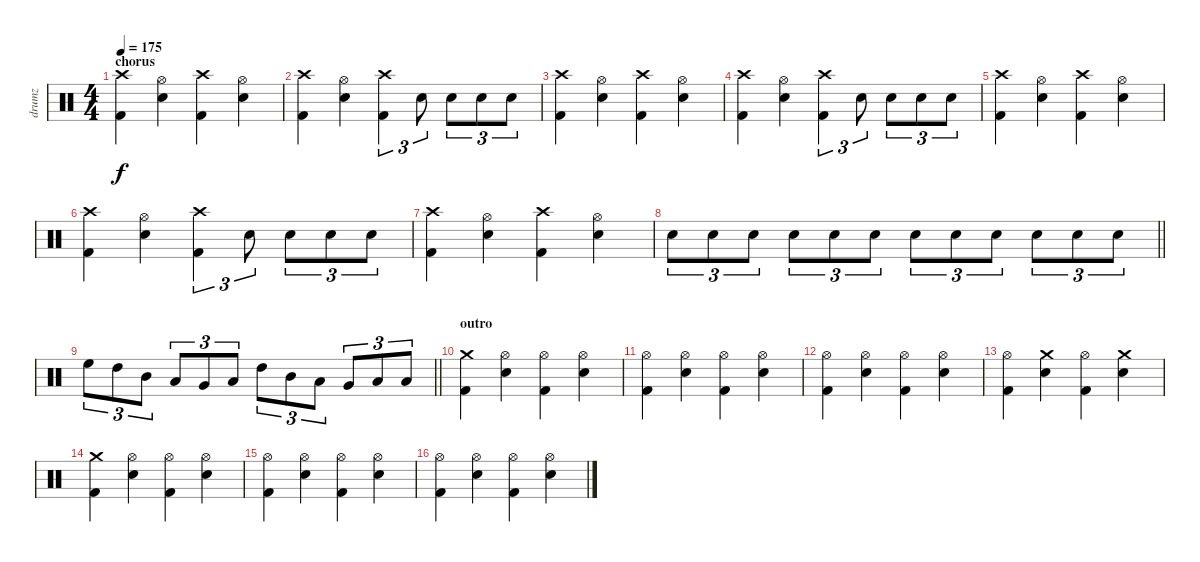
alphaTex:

\track ("drumz" "drumz") {instrument percussion}
\staff {score}
\articulation defaults
\ts (4 4)
\section ("" "chorus")
\tempo 175
\clef neutral
\ks c
("Crash high (hit)" "Kick (hit) 2").4{dy f} ("Hi-Hat (open)" "Electric Snare (hit)").4 ("Crash high (hit)" "Kick (hit) 2").4 ("Hi-Hat (open)" "Electric Snare (hit)").4 |
("Crash high (hit)" "Kick (hit) 2").4 ("Hi-Hat (open)" "Electric Snare (hit)").4 ("Crash high (hit)" "Kick (hit) 2").4{tu (3 2)} "Electric Snare (hit)".8{tu (3 2)} "Electric Snare (hit)".8{tu (3 2)} "Electric Snare (hit)".8{tu (3 2)} "Electric Snare (hit)".8{tu (3 2)} |
("Crash high (hit)" "Kick (hit) 2").4 ("Hi-Hat (open)" "Electric Snare (hit)").4 ("Crash high (hit)" "Kick (hit) 2").4 ("Hi-Hat (open)" "Electric Snare (hit)").4 |
("Crash high (hit)" "Kick (hit) 2").4 ("Hi-Hat (open)" "Electric Snare (hit)").4 ("Crash high (hit)" "Kick (hit) 2").4{tu (3 2)} "Electric Snare (hit)".8{tu (3 2)} "Electric Snare (hit)".8{tu (3 2)} "Electric Snare (hit)".8{tu (3 2)} "Electric Snare (hit)".8{tu (3 2)} |
("Crash high (hit)" "Kick (hit) 2").4 ("Hi-Hat (open)" "Electric Snare (hit)").4 ("Crash high (hit)" "Kick (hit) 2").4 ("Hi-Hat (open)" "Electric Snare (hit)").4 |
("Crash high (hit)" "Kick (hit) 2").4 ("Hi-Hat (open)" "Electric Snare (hit)").4 ("Crash high (hit)" "Kick (hit) 2").4{tu (3 2)} "Electric Snare (hit)".8{tu (3 2)} "Electric Snare (hit)".8{tu (3 2)} "Electric Snare (hit)".8{tu (3 2)} "Electric Snare (hit)".8{tu (3 2)} |
("Crash high (hit)" "Kick (hit) 2").4 ("Hi-Hat (open)" "Electric Snare (hit)").4 ("Crash high (hit)" "Kick (hit) 2").4 ("Hi-Hat (open)" "Electric Snare (hit)").4 |
\barLineRight lightlight "Electric Snare (hit)".8{tu (3 2)} "Electric Snare (hit)".8{tu (3 2)} "Electric Snare (hit)".8{tu (3 2)} "Electric Snare (hit)".8{tu (3 2)} "Electric Snare (hit)".8{tu (3 2)} "Electric Snare (hit)".8{tu (3 2)} "Electric Snare (hit)".8{tu (3 2)} "Electric Snare (hit)".8{tu (3 2)} "Electric Snare (hit)".8{tu (3 2)} "Electric Snare (hit)".8{tu (3 2)} "Electric Snare (hit)".8{tu (3 2)} "Electric Snare (hit)".8{tu (3 2)}
|
\barLineRight lightlight "High Floor Tom (hit)".8{tu (3 2)} "High Tom (hit)".8{tu (3 2)} "Mid Tom (hit)".8{tu (3 2)} "Low Tom (hit)".8{tu (3 2)} "Very Low Tom (hit)".8{tu (3 2)} "Low Floor Tom (hit)".8{tu (3 2)} "High Tom (hit)".8{tu (3 2)} "Mid Tom (hit)".8{tu (3 2)} "Low Tom (hit)".8{tu (3 2)} "Very Low Tom (hit)".8{tu (3 2)} "Low Floor Tom (hit)".8{tu (3 2)} "Low Floor Tom (hit)".8{tu (3 2)}
|
\section ("" "outro")
("Crash medium (hit)" "Kick (hit) 2").4 ("Hi-Hat (open)" "Electric Snare (hit)").4 ("Hi-Hat (open)" "Kick (hit) 2").4 ("Hi-Hat (open)" "Electric Snare (hit)").4 |
("Hi-Hat (open)" "Kick (hit) 2").4 ("Hi-Hat (open)" "Electric Snare (hit)").4 ("Hi-Hat (open)" "Kick (hit) 2").4 ("Hi-Hat (open)" "Electric Snare (hit)").4 |
("Hi-Hat (open)" "Kick (hit) 2").4 ("Hi-Hat (open)" "Electric Snare (hit)").4 ("Hi-Hat (open)" "Kick (hit) 2").4 ("Hi-Hat (open)" "Electric Snare (hit)").4 |
("Hi-Hat (open)" "Kick (hit) 2").4 ("Crash medium (hit)" "Electric Snare (hit)").4 ("Hi-Hat (open)" "Kick (hit) 2").4 ("Crash medium (hit)" "Electric Snare (hit)").4 |
("Crash medium (hit)" "Kick (hit) 2").4 ("Hi-Hat (open)" "Electric Snare (hit)").4 ("Hi-Hat (open)" "Kick (hit) 2").4 ("Hi-Hat (open)" "Electric Snare (hit)").4 |
("Hi-Hat (open)" "Kick (hit) 2").4 ("Hi-Hat (open)" "Electric Snare (hit)").4 ("Hi-Hat (open)" "Kick (hit) 2").4 ("Hi-Hat (open)" "Electric Snare (hit)").4 |
("Hi-Hat (open)" "Kick (hit) 2").4 ("Hi-Hat (open)" "Electric Snare (hit)").4 ("Hi-Hat (open)" "Kick (hit) 2").4 ("Hi-Hat (open)" "Electric Snare (hit)").4
